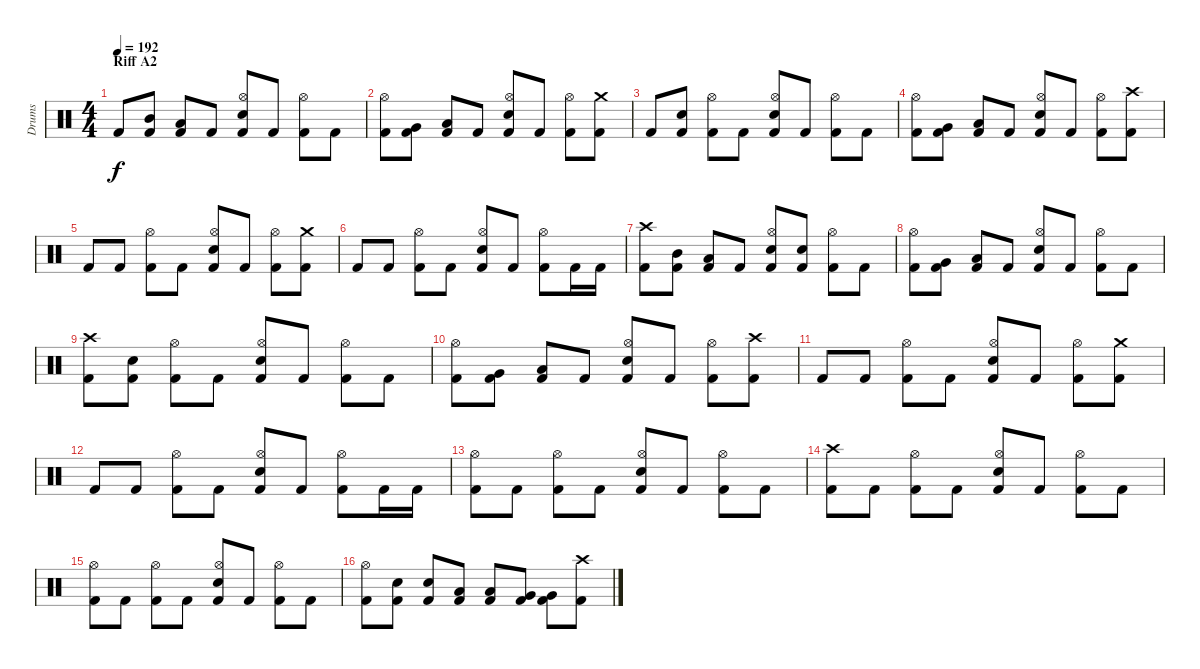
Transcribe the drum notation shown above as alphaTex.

\track ("Drums" "Drums") {instrument percussion}
\staff {score}
\articulation defaults
\ts (4 4)
\section ("" "Riff A2")
\tempo 192
\clef neutral
\ks c "Kick (hit) 2".8{dy f}
("Mid Tom (hit)" "Kick (hit) 2").8 ("Low Tom (hit)" "Kick (hit) 2").8 "Kick (hit) 2".8 ("Hi-Hat (open)" "Snare (hit) 2" "Kick (hit) 2").8 "Kick (hit) 2".8 ("Hi-Hat (open)" "Kick (hit) 2").8 "Kick (hit) 2".8 |
("Hi-Hat (open)" "Kick (hit) 2").8 ("Very Low Tom (hit)" "Kick (hit) 2").8 ("Low Floor Tom (hit)" "Kick (hit) 2").8 "Kick (hit) 2".8 ("Hi-Hat (open)" "Snare (hit) 2" "Kick (hit) 2").8 "Kick (hit) 2".8 ("Hi-Hat (open)" "Kick (hit) 2").8 ("Crash medium (hit)" "Kick (hit) 2").8 |
"Kick (hit) 2".8 ("Snare (hit) 2" "Kick (hit) 2").8 ("Hi-Hat (open)" "Kick (hit) 2").8 "Kick (hit) 2".8 ("Hi-Hat (open)" "Snare (hit) 2" "Kick (hit) 2").8 "Kick (hit) 2".8 ("Hi-Hat (open)" "Kick (hit) 2").8 "Kick (hit) 2".8 |
("Hi-Hat (open)" "Kick (hit) 2").8 ("Very Low Tom (hit)" "Kick (hit) 2").8 ("Low Floor Tom (hit)" "Kick (hit) 2").8 "Kick (hit) 2".8 ("Hi-Hat (open)" "Snare (hit) 2" "Kick (hit) 2").8 "Kick (hit) 2".8 ("Hi-Hat (open)" "Kick (hit) 2").8 ("Crash high (hit)" "Kick (hit) 2").8 |
"Kick (hit) 2".8 "Kick (hit) 2".8 ("Hi-Hat (open)" "Kick (hit) 2").8 "Kick (hit) 2".8 ("Hi-Hat (open)" "Snare (hit) 2" "Kick (hit) 2").8 "Kick (hit) 2".8 ("Hi-Hat (open)" "Kick (hit) 2").8 ("Crash medium (hit)" "Kick (hit) 2").8 |
"Kick (hit) 2".8 "Kick (hit) 2".8 ("Hi-Hat (open)" "Kick (hit) 2").8 "Kick (hit) 2".8 ("Hi-Hat (open)" "Snare (hit) 2" "Kick (hit) 2").8 "Kick (hit) 2".8 ("Hi-Hat (open)" "Kick (hit) 2").8 "Kick (hit) 2".16 "Kick (hit) 2".16 |
("Crash high (hit)" "Kick (hit) 2").8 ("Mid Tom (hit)" "Kick (hit) 2").8 ("Low Tom (hit)" "Kick (hit) 2").8 "Kick (hit) 2".8 ("Hi-Hat (open)" "Snare (hit) 2" "Kick (hit) 2").8 ("Snare (hit) 2" "Kick (hit) 2").8 ("Hi-Hat (open)" "Kick (hit) 2").8 "Kick (hit) 2".8 |
("Hi-Hat (open)" "Kick (hit) 2").8 ("Very Low Tom (hit)" "Kick (hit) 2").8 ("Low Floor Tom (hit)" "Kick (hit) 2").8 "Kick (hit) 2".8 ("Hi-Hat (open)" "Snare (hit) 2" "Kick (hit) 2").8 "Kick (hit) 2".8 ("Hi-Hat (open)" "Kick (hit) 2").8 "Kick (hit) 2".8 |
("Crash high (hit)" "Kick (hit) 2").8 ("Snare (hit) 2" "Kick (hit) 2").8 ("Hi-Hat (open)" "Kick (hit) 2").8 "Kick (hit) 2".8 ("Hi-Hat (open)" "Snare (hit) 2" "Kick (hit) 2").8 "Kick (hit) 2".8 ("Hi-Hat (open)" "Kick (hit) 2").8 "Kick (hit) 2".8 |
("Hi-Hat (open)" "Kick (hit) 2").8 ("Very Low Tom (hit)" "Kick (hit) 2").8 ("Low Floor Tom (hit)" "Kick (hit) 2").8 "Kick (hit) 2".8 ("Hi-Hat (open)" "Snare (hit) 2" "Kick (hit) 2").8 "Kick (hit) 2".8 ("Hi-Hat (open)" "Kick (hit) 2").8 ("Crash high (hit)" "Kick (hit) 2").8 |
"Kick (hit) 2".8 "Kick (hit) 2".8 ("Hi-Hat (open)" "Kick (hit) 2").8 "Kick (hit) 2".8 ("Hi-Hat (open)" "Snare (hit) 2" "Kick (hit) 2").8 "Kick (hit) 2".8 ("Hi-Hat (open)" "Kick (hit) 2").8 ("Crash medium (hit)" "Kick (hit) 2").8 |
"Kick (hit) 2".8 "Kick (hit) 2".8 ("Hi-Hat (open)" "Kick (hit) 2").8 "Kick (hit) 2".8 ("Hi-Hat (open)" "Snare (hit) 2" "Kick (hit) 2").8 "Kick (hit) 2".8 ("Hi-Hat (open)" "Kick (hit) 2").8 "Kick (hit) 2".16 "Kick (hit) 2".16 |
("Hi-Hat (open)" "Kick (hit) 2").8 "Kick (hit) 2".8 ("Hi-Hat (open)" "Kick (hit) 2").8 "Kick (hit) 2".8 ("Hi-Hat (open)" "Snare (hit) 2" "Kick (hit) 2").8 "Kick (hit) 2".8 ("Hi-Hat (open)" "Kick (hit) 2").8 "Kick (hit) 2".8 |
("Crash high (hit)" "Kick (hit) 2").8 "Kick (hit) 2".8 ("Hi-Hat (open)" "Kick (hit) 2").8 "Kick (hit) 2".8 ("Hi-Hat (open)" "Snare (hit) 2" "Kick (hit) 2").8 "Kick (hit) 2".8 ("Hi-Hat (open)" "Kick (hit) 2").8 "Kick (hit) 2".8 |
("Hi-Hat (open)" "Kick (hit) 2").8 "Kick (hit) 2".8 ("Hi-Hat (open)" "Kick (hit) 2").8 "Kick (hit) 2".8 ("Hi-Hat (open)" "Snare (hit) 2" "Kick (hit) 2").8 "Kick (hit) 2".8 ("Hi-Hat (open)" "Kick (hit) 2").8 "Kick (hit) 2".8 |
("Hi-Hat (open)" "Kick (hit) 2").8 ("Snare (hit) 2" "Kick (hit) 2").8 ("Snare (hit) 2" "Kick (hit) 2").8 ("Low Tom (hit)" "Kick (hit) 2").8 ("Low Tom (hit)" "Kick (hit) 2").8 ("Very Low Tom (hit)" "Kick (hit) 2").8 ("Very Low Tom (hit)" "Kick (hit) 2").8 ("Crash high (hit)" "Kick (hit) 2").8
